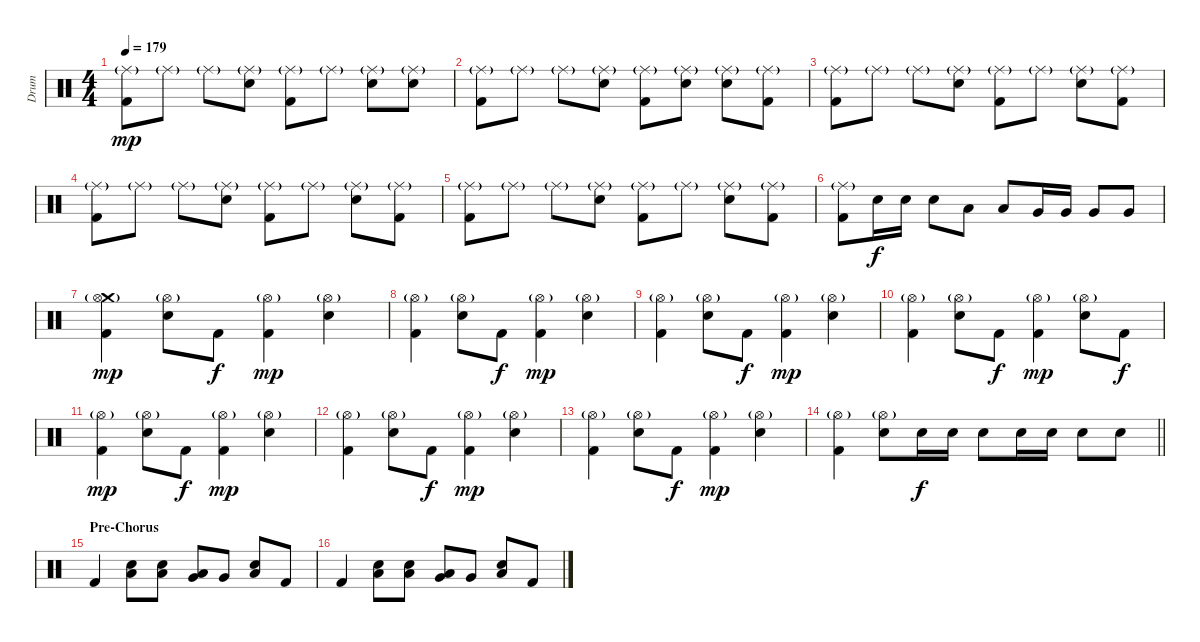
\track ("Drum" "Drum") {instrument percussion}
\staff {score}
\articulation defaults
\ts (4 4)
\tempo 179
\clef neutral
\ks c
("Ride (middle)"{g} "Kick (hit) 2").8{dy mp} "Ride (middle)"{g}.8 "Ride (middle)"{g}.8 ("Ride (middle)"{g} "Electric Snare (hit)").8 ("Ride (middle)"{g} "Kick (hit) 2").8 "Ride (middle)"{g}.8 ("Ride (middle)"{g} "Electric Snare (hit)").8 ("Ride (middle)"{g} "Snare (hit)").8 |
("Ride (middle)"{g} "Kick (hit) 2").8 "Ride (middle)"{g}.8 "Ride (middle)"{g}.8 ("Ride (middle)"{g} "Electric Snare (hit)").8 ("Ride (middle)"{g} "Kick (hit) 2").8 ("Ride (middle)"{g} "Electric Snare (hit)").8 ("Ride (middle)"{g} "Electric Snare (hit)").8 ("Ride (middle)"{g} "Kick (hit) 2").8 |
("Ride (middle)"{g} "Kick (hit) 2").8 "Ride (middle)"{g}.8 "Ride (middle)"{g}.8 ("Ride (middle)"{g} "Electric Snare (hit)").8 ("Ride (middle)"{g} "Kick (hit) 2").8 "Ride (middle)"{g}.8 ("Ride (middle)"{g} "Electric Snare (hit)").8 ("Ride (middle)"{g} "Kick (hit) 2").8 |
("Ride (middle)"{g} "Kick (hit) 2").8 "Ride (middle)"{g}.8 "Ride (middle)"{g}.8 ("Ride (middle)"{g} "Electric Snare (hit)").8 ("Ride (middle)"{g} "Kick (hit) 2").8 "Ride (middle)"{g}.8 ("Ride (middle)"{g} "Electric Snare (hit)").8 ("Ride (middle)"{g} "Kick (hit) 2").8 |
("Ride (middle)"{g} "Kick (hit) 2").8 "Ride (middle)"{g}.8 "Ride (middle)"{g}.8 ("Ride (middle)"{g} "Electric Snare (hit)").8 ("Ride (middle)"{g} "Kick (hit) 2").8 "Ride (middle)"{g}.8 ("Ride (middle)"{g} "Electric Snare (hit)").8 ("Ride (middle)"{g} "Kick (hit) 2").8 |
("Ride (middle)"{g} "Kick (hit) 2").8 "Electric Snare (hit)".16{dy f} "Electric Snare (hit)".16 "Electric Snare (hit)".8 "Low Tom (hit)".8 "Low Tom (hit)".8 "Very Low Tom (hit)".16 "Very Low Tom (hit)".16 "Very Low Tom (hit)".8 "Very Low Tom (hit)".8 |
("Crash medium (hit)" "Hi-Hat (open)"{g} "Kick (hit) 2").4{dy mp} ("Hi-Hat (open)"{g} "Electric Snare (hit)").8 "Kick (hit) 2".8{dy f} ("Hi-Hat (open)"{g} "Kick (hit) 2").4{dy mp} ("Hi-Hat (open)"{g} "Electric Snare (hit)").4 |
("Hi-Hat (open)"{g} "Kick (hit) 2").4 ("Hi-Hat (open)"{g} "Electric Snare (hit)").8 "Kick (hit) 2".8{dy f} ("Hi-Hat (open)"{g} "Kick (hit) 2").4{dy mp} ("Hi-Hat (open)"{g} "Electric Snare (hit)").4 |
("Hi-Hat (open)"{g} "Kick (hit) 2").4 ("Hi-Hat (open)"{g} "Electric Snare (hit)").8 "Kick (hit) 2".8{dy f} ("Hi-Hat (open)"{g} "Kick (hit) 2").4{dy mp} ("Hi-Hat (open)"{g} "Electric Snare (hit)").4 |
("Hi-Hat (open)"{g} "Kick (hit) 2").4 ("Hi-Hat (open)"{g} "Electric Snare (hit)").8 "Kick (hit) 2".8{dy f} ("Hi-Hat (open)"{g} "Kick (hit) 2").4{dy mp} ("Hi-Hat (open)"{g} "Electric Snare (hit)").8 "Kick (hit) 2".8{dy f} |
("Hi-Hat (open)"{g} "Kick (hit) 2").4{dy mp} ("Hi-Hat (open)"{g} "Electric Snare (hit)").8 "Kick (hit) 2".8{dy f} ("Hi-Hat (open)"{g} "Kick (hit) 2").4{dy mp} ("Hi-Hat (open)"{g} "Electric Snare (hit)").4 |
("Hi-Hat (open)"{g} "Kick (hit) 2").4 ("Hi-Hat (open)"{g} "Electric Snare (hit)").8 "Kick (hit) 2".8{dy f} ("Hi-Hat (open)"{g} "Kick (hit) 2").4{dy mp} ("Hi-Hat (open)"{g} "Electric Snare (hit)").4 |
("Hi-Hat (open)"{g} "Kick (hit) 2").4 ("Hi-Hat (open)"{g} "Electric Snare (hit)").8 "Kick (hit) 2".8{dy f} ("Hi-Hat (open)"{g} "Kick (hit) 2").4{dy mp} ("Hi-Hat (open)"{g} "Electric Snare (hit)").4 |
\barLineRight lightlight
("Hi-Hat (open)"{g} "Kick (hit) 2").4 ("Hi-Hat (open)"{g} "Electric Snare (hit)").8 "Electric Snare (hit)".16{dy f} "Electric Snare (hit)".16 "Electric Snare (hit)".8 "Electric Snare (hit)".16 "Electric Snare (hit)".16 "Electric Snare (hit)".8 "Electric Snare (hit)".8 |
\section ("" "Pre-Chorus")
"Kick (hit) 2".4 ("Electric Snare (hit)" "Low Floor Tom (hit)").8 ("Electric Snare (hit)" "Low Floor Tom (hit)").8 ("Low Tom (hit)" "Very Low Tom (hit)").8 "Very Low Tom (hit)".8 ("Electric Snare (hit)" "Low Floor Tom (hit)").8 "Kick (hit) 2".8 |
"Kick (hit) 2".4 ("Electric Snare (hit)" "Low Floor Tom (hit)").8 ("Electric Snare (hit)" "Low Floor Tom (hit)").8 ("Low Tom (hit)" "Very Low Tom (hit)").8 "Very Low Tom (hit)".8 ("Electric Snare (hit)" "Low Floor Tom (hit)").8 "Kick (hit) 2".8
